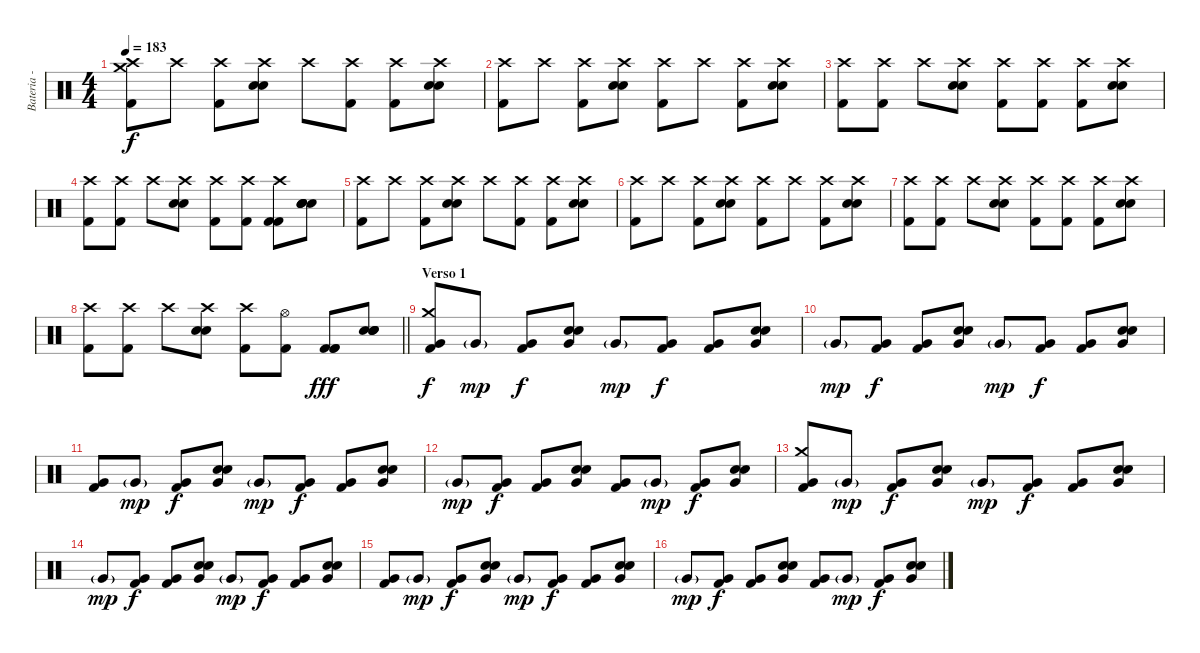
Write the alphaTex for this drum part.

\track ("Bateria - Larzon " "Bateria - ") {instrument percussion}
\staff {score}
\articulation defaults
\ts (4 4)
\tempo 183
\clef neutral
\ks c
("Kick (hit) 2" "Crash medium (hit)" "Crash high (hit)").8{dy f} "Crash high (hit)".8 ("Kick (hit) 2" "Crash high (hit)").8 ("Snare (hit) 2" "Snare (hit) 2" "Crash high (hit)").8 "Crash high (hit)".8 ("Kick (hit) 2" "Crash high (hit)").8 ("Kick (hit) 2" "Crash high (hit)").8 ("Snare (hit) 2" "Snare (hit) 2" "Crash high (hit)").8 |
("Kick (hit) 2" "Crash high (hit)").8 "Crash high (hit)".8 ("Kick (hit) 2" "Crash high (hit)").8 ("Snare (hit) 2" "Snare (hit) 2" "Crash high (hit)").8 ("Kick (hit) 2" "Crash high (hit)").8 "Crash high (hit)".8 ("Kick (hit) 2" "Crash high (hit)").8 ("Snare (hit) 2" "Snare (hit) 2" "Crash high (hit)").8 |
("Kick (hit) 2" "Crash high (hit)").8 ("Kick (hit) 2" "Crash high (hit)").8 "Crash high (hit)".8 ("Snare (hit) 2" "Snare (hit) 2" "Crash high (hit)").8 ("Kick (hit) 2" "Crash high (hit)").8 ("Kick (hit) 2" "Crash high (hit)").8 ("Kick (hit) 2" "Crash high (hit)").8 ("Snare (hit) 2" "Snare (hit) 2" "Crash high (hit)").8 |
("Kick (hit) 2" "Crash high (hit)").8 ("Kick (hit) 2" "Crash high (hit)").8 "Crash high (hit)".8 ("Snare (hit) 2" "Snare (hit) 2" "Crash high (hit)").8 ("Kick (hit) 2" "Crash high (hit)").8 ("Kick (hit) 2" "Crash high (hit)").8 ("Kick (hit) 2" "Kick (hit) 2" "Crash high (hit)").8 ("Snare (hit) 2" "Snare (hit) 2" "Snare (hit) 2" "Snare (hit) 2").8 |
("Kick (hit) 2" "Crash high (hit)").8 "Crash high (hit)".8 ("Kick (hit) 2" "Crash high (hit)").8 ("Snare (hit) 2" "Snare (hit) 2" "Crash high (hit)").8 "Crash high (hit)".8 ("Kick (hit) 2" "Crash high (hit)").8 ("Kick (hit) 2" "Crash high (hit)").8 ("Snare (hit) 2" "Snare (hit) 2" "Crash high (hit)").8 |
("Kick (hit) 2" "Crash high (hit)").8 "Crash high (hit)".8 ("Kick (hit) 2" "Crash high (hit)").8 ("Snare (hit) 2" "Snare (hit) 2" "Crash high (hit)").8 ("Kick (hit) 2" "Crash high (hit)").8 "Crash high (hit)".8 ("Kick (hit) 2" "Crash high (hit)").8 ("Snare (hit) 2" "Snare (hit) 2" "Crash high (hit)").8 |
("Kick (hit) 2" "Crash high (hit)").8 ("Kick (hit) 2" "Crash high (hit)").8 "Crash high (hit)".8 ("Snare (hit) 2" "Snare (hit) 2" "Crash high (hit)").8 ("Kick (hit) 2" "Crash high (hit)").8 ("Kick (hit) 2" "Crash high (hit)").8 ("Kick (hit) 2" "Crash high (hit)").8 ("Snare (hit) 2" "Snare (hit) 2" "Crash high (hit)").8 |
\barLineRight lightlight
("Kick (hit) 2" "Crash high (hit)").8 ("Kick (hit) 2" "Crash high (hit)").8 "Crash high (hit)".8 ("Snare (hit) 2" "Snare (hit) 2" "Crash high (hit)").8 ("Kick (hit) 2" "Crash high (hit)").8 ("Kick (hit) 2" "Hi-Hat (open)").8 ("Kick (hit) 2" "Kick (hit) 2" "Kick (hit) 2").8{dy fff} ("Snare (hit) 2" "Snare (hit) 2" "Snare (hit) 2" "Snare (hit) 2").8 |
\section ("" "Verso 1")
("Kick (hit) 2" "Crash medium (hit)" "Very Low Tom (hit)").8{dy f} "Very Low Tom (hit)"{g}.8{dy mp} ("Kick (hit) 2" "Very Low Tom (hit)").8{dy f} ("Snare (hit) 2" "Snare (hit) 2" "Very Low Tom (hit)").8 "Very Low Tom (hit)"{g}.8{dy mp} ("Kick (hit) 2" "Very Low Tom (hit)").8{dy f} ("Kick (hit) 2" "Very Low Tom (hit)").8 ("Snare (hit) 2" "Snare (hit) 2" "Very Low Tom (hit)").8 |
"Very Low Tom (hit)"{g}.8{dy mp} ("Kick (hit) 2" "Very Low Tom (hit)").8{dy f} ("Kick (hit) 2" "Very Low Tom (hit)").8 ("Snare (hit) 2" "Snare (hit) 2" "Very Low Tom (hit)").8 "Very Low Tom (hit)"{g}.8{dy mp} ("Kick (hit) 2" "Very Low Tom (hit)").8{dy f} ("Kick (hit) 2" "Very Low Tom (hit)").8 ("Snare (hit) 2" "Snare (hit) 2" "Very Low Tom (hit)").8 |
("Kick (hit) 2" "Very Low Tom (hit)").8 "Very Low Tom (hit)"{g}.8{dy mp} ("Kick (hit) 2" "Very Low Tom (hit)").8{dy f} ("Snare (hit) 2" "Snare (hit) 2" "Very Low Tom (hit)").8 "Very Low Tom (hit)"{g}.8{dy mp} ("Kick (hit) 2" "Very Low Tom (hit)").8{dy f} ("Kick (hit) 2" "Very Low Tom (hit)").8 ("Snare (hit) 2" "Snare (hit) 2" "Very Low Tom (hit)").8 |
"Very Low Tom (hit)"{g}.8{dy mp} ("Kick (hit) 2" "Very Low Tom (hit)").8{dy f} ("Kick (hit) 2" "Very Low Tom (hit)").8 ("Snare (hit) 2" "Snare (hit) 2" "Very Low Tom (hit)").8 ("Kick (hit) 2" "Very Low Tom (hit)").8 "Very Low Tom (hit)"{g}.8{dy mp} ("Kick (hit) 2" "Very Low Tom (hit)").8{dy f} ("Snare (hit) 2" "Snare (hit) 2" "Very Low Tom (hit)").8 |
("Kick (hit) 2" "Crash medium (hit)" "Very Low Tom (hit)").8 "Very Low Tom (hit)"{g}.8{dy mp} ("Kick (hit) 2" "Very Low Tom (hit)").8{dy f} ("Snare (hit) 2" "Snare (hit) 2" "Very Low Tom (hit)").8 "Very Low Tom (hit)"{g}.8{dy mp} ("Kick (hit) 2" "Very Low Tom (hit)").8{dy f} ("Kick (hit) 2" "Very Low Tom (hit)").8 ("Snare (hit) 2" "Snare (hit) 2" "Very Low Tom (hit)").8 |
"Very Low Tom (hit)"{g}.8{dy mp} ("Kick (hit) 2" "Very Low Tom (hit)").8{dy f} ("Kick (hit) 2" "Very Low Tom (hit)").8 ("Snare (hit) 2" "Snare (hit) 2" "Very Low Tom (hit)").8 "Very Low Tom (hit)"{g}.8{dy mp} ("Kick (hit) 2" "Very Low Tom (hit)").8{dy f} ("Kick (hit) 2" "Very Low Tom (hit)").8 ("Snare (hit) 2" "Snare (hit) 2" "Very Low Tom (hit)").8 |
("Kick (hit) 2" "Very Low Tom (hit)").8 "Very Low Tom (hit)"{g}.8{dy mp} ("Kick (hit) 2" "Very Low Tom (hit)").8{dy f} ("Snare (hit) 2" "Snare (hit) 2" "Very Low Tom (hit)").8 "Very Low Tom (hit)"{g}.8{dy mp} ("Kick (hit) 2" "Very Low Tom (hit)").8{dy f} ("Kick (hit) 2" "Very Low Tom (hit)").8 ("Snare (hit) 2" "Snare (hit) 2" "Very Low Tom (hit)").8 |
"Very Low Tom (hit)"{g}.8{dy mp} ("Kick (hit) 2" "Very Low Tom (hit)").8{dy f} ("Kick (hit) 2" "Very Low Tom (hit)").8 ("Snare (hit) 2" "Snare (hit) 2" "Very Low Tom (hit)").8 ("Kick (hit) 2" "Very Low Tom (hit)").8 "Very Low Tom (hit)"{g}.8{dy mp} ("Kick (hit) 2" "Very Low Tom (hit)").8{dy f} ("Snare (hit) 2" "Snare (hit) 2" "Very Low Tom (hit)").8
